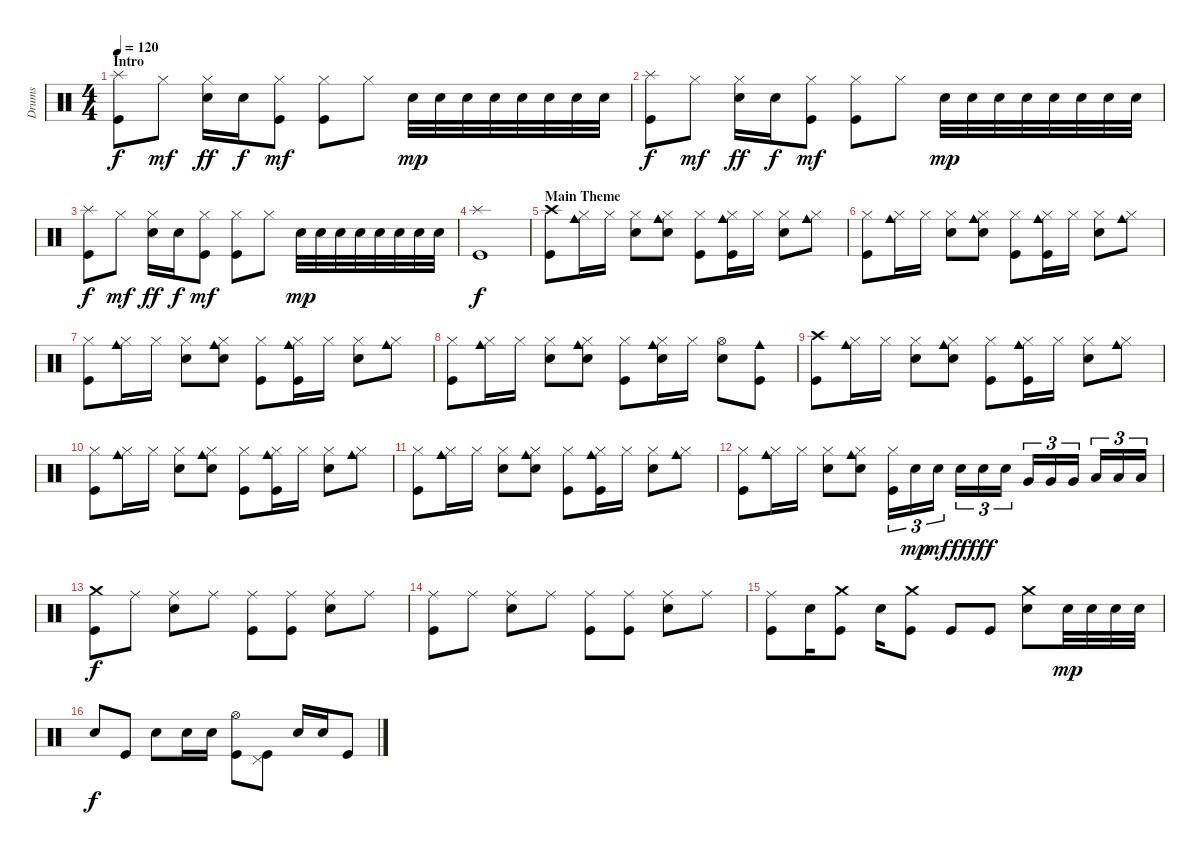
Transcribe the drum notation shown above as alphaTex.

\track ("Drums" "Drums") {instrument percussion}
\staff {score}
\articulation defaults
\ts (4 4)
\section ("" "Intro")
\tempo 120
\clef neutral
\ks c
("Splash (hit)" "Kick (hit)").8{dy f} "Hi-Hat (closed)".8{dy mf} ("Hi-Hat (closed)" "Electric Snare (hit)").16{dy ff} "Electric Snare (hit)".16{dy f} ("Hi-Hat (closed)" "Kick (hit)").8{dy mf} ("Hi-Hat (closed)" "Kick (hit)").8 "Hi-Hat (closed)".8 "Electric Snare (hit)".32{dy mp} "Electric Snare (hit)".32 "Electric Snare (hit)".32 "Electric Snare (hit)".32 "Electric Snare (hit)".32 "Electric Snare (hit)".32 "Electric Snare (hit)".32 "Electric Snare (hit)".32 |
("Splash (hit)" "Kick (hit)").8{dy f} "Hi-Hat (closed)".8{dy mf} ("Hi-Hat (closed)" "Electric Snare (hit)").16{dy ff} "Electric Snare (hit)".16{dy f} ("Hi-Hat (closed)" "Kick (hit)").8{dy mf} ("Hi-Hat (closed)" "Kick (hit)").8 "Hi-Hat (closed)".8 "Electric Snare (hit)".32{dy mp} "Electric Snare (hit)".32 "Electric Snare (hit)".32 "Electric Snare (hit)".32 "Electric Snare (hit)".32 "Electric Snare (hit)".32 "Electric Snare (hit)".32 "Electric Snare (hit)".32 |
("Splash (hit)" "Kick (hit)").8{dy f} "Hi-Hat (closed)".8{dy mf} ("Hi-Hat (closed)" "Electric Snare (hit)").16{dy ff} "Electric Snare (hit)".16{dy f} ("Hi-Hat (closed)" "Kick (hit)").8{dy mf} ("Hi-Hat (closed)" "Kick (hit)").8 "Hi-Hat (closed)".8 "Electric Snare (hit)".32{dy mp} "Electric Snare (hit)".32 "Electric Snare (hit)".32 "Electric Snare (hit)".32 "Electric Snare (hit)".32 "Electric Snare (hit)".32 "Electric Snare (hit)".32 "Electric Snare (hit)".32 |
("Splash (hit)" "Kick (hit)").1{dy f} |
\section ("" "Main Theme")
("Crash high (hit)" "Kick (hit)").8 ("Cowbell medium (hit)" "Hi-Hat (closed)").16 "Hi-Hat (closed)".16 ("Hi-Hat (closed)" "Electric Snare (hit)").8 ("Cowbell medium (hit)" "Hi-Hat (closed)" "Electric Snare (hit)").8 ("Hi-Hat (closed)" "Kick (hit)").8 ("Cowbell medium (hit)" "Hi-Hat (closed)" "Kick (hit)").16 "Hi-Hat (closed)".16 ("Hi-Hat (closed)" "Electric Snare (hit)").8 ("Cowbell medium (hit)" "Hi-Hat (closed)").8 |
("Hi-Hat (closed)" "Kick (hit)").8 ("Cowbell medium (hit)" "Hi-Hat (closed)").16 "Hi-Hat (closed)".16 ("Hi-Hat (closed)" "Electric Snare (hit)").8 ("Cowbell medium (hit)" "Hi-Hat (closed)" "Electric Snare (hit)").8 ("Hi-Hat (closed)" "Kick (hit)").8 ("Cowbell medium (hit)" "Hi-Hat (closed)" "Kick (hit)").16 "Hi-Hat (closed)".16 ("Hi-Hat (closed)" "Electric Snare (hit)").8 ("Cowbell medium (hit)" "Hi-Hat (closed)").8 |
("Hi-Hat (closed)" "Kick (hit)").8 ("Cowbell medium (hit)" "Hi-Hat (closed)").16 "Hi-Hat (closed)".16 ("Hi-Hat (closed)" "Electric Snare (hit)").8 ("Cowbell medium (hit)" "Hi-Hat (closed)" "Electric Snare (hit)").8 ("Hi-Hat (closed)" "Kick (hit)").8 ("Cowbell medium (hit)" "Hi-Hat (closed)" "Kick (hit)").16 "Hi-Hat (closed)".16 ("Hi-Hat (closed)" "Electric Snare (hit)").8 ("Cowbell medium (hit)" "Hi-Hat (closed)").8 |
("Hi-Hat (closed)" "Kick (hit)").8 ("Cowbell medium (hit)" "Hi-Hat (closed)").16 "Hi-Hat (closed)".16 ("Hi-Hat (closed)" "Electric Snare (hit)").8 ("Cowbell medium (hit)" "Hi-Hat (closed)" "Electric Snare (hit)").8 ("Hi-Hat (closed)" "Kick (hit)").8 ("Cowbell medium (hit)" "Hi-Hat (closed)" "Electric Snare (hit)").16 "Hi-Hat (closed)".16 ("Hi-Hat (open)" "Electric Snare (hit)").8 ("Cowbell medium (hit)" "Kick (hit)").8 |
("Crash high (hit)" "Kick (hit)").8 ("Cowbell medium (hit)" "Hi-Hat (closed)").16 "Hi-Hat (closed)".16 ("Hi-Hat (closed)" "Electric Snare (hit)").8 ("Cowbell medium (hit)" "Hi-Hat (closed)" "Electric Snare (hit)").8 ("Hi-Hat (closed)" "Kick (hit)").8 ("Cowbell medium (hit)" "Hi-Hat (closed)" "Kick (hit)").16 "Hi-Hat (closed)".16 ("Hi-Hat (closed)" "Electric Snare (hit)").8 ("Cowbell medium (hit)" "Hi-Hat (closed)").8 |
("Hi-Hat (closed)" "Kick (hit)").8 ("Cowbell medium (hit)" "Hi-Hat (closed)").16 "Hi-Hat (closed)".16 ("Hi-Hat (closed)" "Electric Snare (hit)").8 ("Cowbell medium (hit)" "Hi-Hat (closed)" "Electric Snare (hit)").8 ("Hi-Hat (closed)" "Kick (hit)").8 ("Cowbell medium (hit)" "Hi-Hat (closed)" "Kick (hit)").16 "Hi-Hat (closed)".16 ("Hi-Hat (closed)" "Electric Snare (hit)").8 ("Cowbell medium (hit)" "Hi-Hat (closed)").8 |
("Hi-Hat (closed)" "Kick (hit)").8 ("Cowbell medium (hit)" "Hi-Hat (closed)").16 "Hi-Hat (closed)".16 ("Hi-Hat (closed)" "Electric Snare (hit)").8 ("Cowbell medium (hit)" "Hi-Hat (closed)" "Electric Snare (hit)").8 ("Hi-Hat (closed)" "Kick (hit)").8 ("Cowbell medium (hit)" "Hi-Hat (closed)" "Kick (hit)").16 "Hi-Hat (closed)".16 ("Hi-Hat (closed)" "Electric Snare (hit)").8 ("Cowbell medium (hit)" "Hi-Hat (closed)").8 |
("Hi-Hat (closed)" "Kick (hit)").8 ("Cowbell medium (hit)" "Hi-Hat (closed)").16 "Hi-Hat (closed)".16 ("Hi-Hat (closed)" "Electric Snare (hit)").8 ("Cowbell medium (hit)" "Hi-Hat (closed)" "Electric Snare (hit)").8 ("Hi-Hat (closed)" "Kick (hit)").16{tu (3 2)} "Electric Snare (hit)".16{tu (3 2) dy mp} "Electric Snare (hit)".16{tu (3 2) dy mf} "Electric Snare (hit)".16{tu (3 2) dy ff} "Electric Snare (hit)".16{tu (3 2) dy fff} "Electric Snare (hit)".16{tu (3 2)} "Very Low Tom (hit)".16{tu (3 2)} "Very Low Tom (hit)".16{tu (3 2)} "Very Low Tom (hit)".16{tu (3 2)} "Low Floor Tom (hit)".16{tu (3 2)} "Low Floor Tom (hit)".16{tu (3 2)} "Low Floor Tom (hit)".16{tu (3 2)} |
("Crash medium (hit)" "Kick (hit)").8{dy f} "Ride (middle)".8 ("Ride (middle)" "Electric Snare (hit)").8 "Ride (middle)".8 ("Ride (middle)" "Kick (hit)").8 ("Ride (middle)" "Kick (hit)").8 ("Ride (middle)" "Electric Snare (hit)").8 "Ride (middle)".8 |
("Ride (middle)" "Kick (hit)").8 "Ride (middle)".8 ("Ride (middle)" "Electric Snare (hit)").8 "Ride (middle)".8 ("Ride (middle)" "Kick (hit)").8 ("Ride (middle)" "Kick (hit)").8 ("Ride (middle)" "Electric Snare (hit)").8 "Ride (middle)".8 |
("Ride (middle)" "Kick (hit)").8 "Electric Snare (hit)".16 ("Crash medium (hit)" "Kick (hit)").8 "Electric Snare (hit)".16 ("Crash medium (hit)" "Kick (hit)").8 "Kick (hit)".8 "Kick (hit)".8 ("Crash medium (hit)" "Electric Snare (hit)").8 "Electric Snare (hit)".32{dy mp} "Electric Snare (hit)".32 "Electric Snare (hit)".32 "Electric Snare (hit)".32 |
"Electric Snare (hit)".8{dy f} "Kick (hit)".8 "Electric Snare (hit)".8 "Electric Snare (hit)".16 "Electric Snare (hit)".16 ("Hi-Hat (open)" "Kick (hit)").8 ("Pedal Hi-Hat (hit)" "Kick (hit)").8 "Electric Snare (hit)".16 "Electric Snare (hit)".16 "Kick (hit)".8
